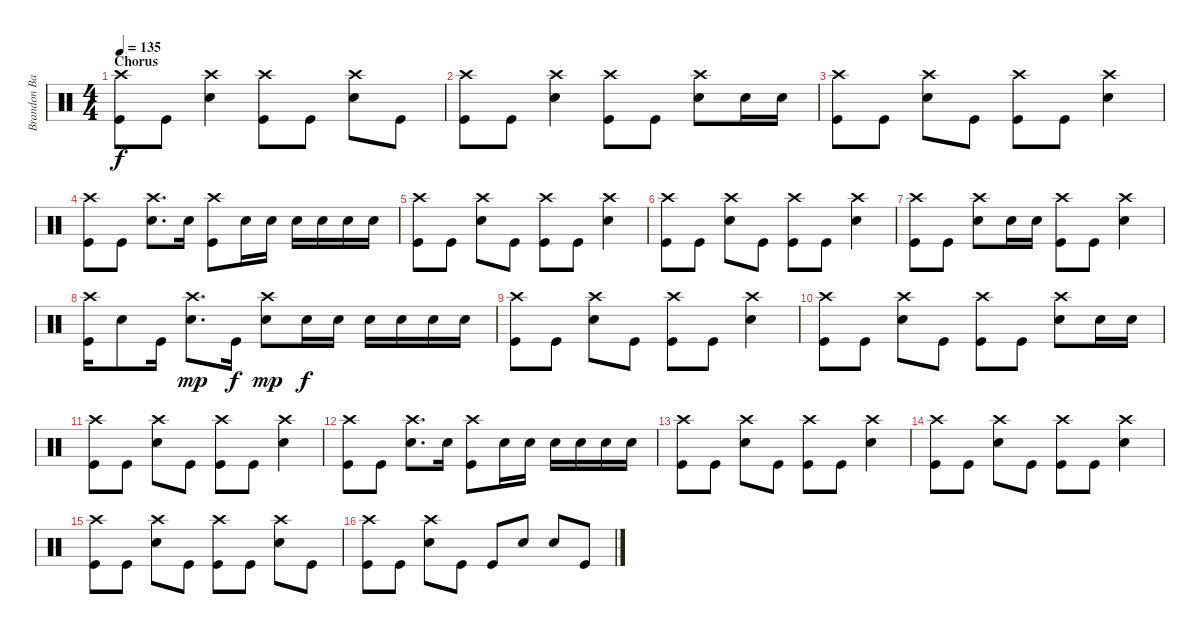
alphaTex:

\track ("Brandon Barnes - Drums" "Brandon Ba") {instrument percussion}
\staff {score}
\articulation defaults
\ts (4 4)
\section ("" "Chorus")
\tempo 135
\clef neutral
\ks c
("Crash high (hit)" "Kick (hit)").8{dy f} "Kick (hit)".8 ("Snare (hit) 2" "Crash high (hit)").4 ("Crash high (hit)" "Kick (hit)").8 "Kick (hit)".8 ("Snare (hit) 2" "Crash high (hit)").8 "Kick (hit)".8 |
("Crash high (hit)" "Kick (hit)").8 "Kick (hit)".8 ("Snare (hit) 2" "Crash high (hit)").4 ("Crash high (hit)" "Kick (hit)").8 "Kick (hit)".8 ("Snare (hit) 2" "Crash high (hit)").8 "Snare (hit) 2".16 "Snare (hit) 2".16 |
("Crash high (hit)" "Kick (hit)").8 "Kick (hit)".8 ("Snare (hit) 2" "Crash high (hit)").8 "Kick (hit)".8 ("Crash high (hit)" "Kick (hit)").8 "Kick (hit)".8 ("Snare (hit) 2" "Crash high (hit)").4 |
("Crash high (hit)" "Kick (hit)").8 "Kick (hit)".8 ("Snare (hit) 2" "Crash high (hit)").8{d} "Snare (hit) 2".16 ("Crash high (hit)" "Kick (hit)").8 "Snare (hit) 2".16 "Snare (hit) 2".16 "Snare (hit) 2".16 "Snare (hit) 2".16 "Snare (hit) 2".16 "Snare (hit) 2".16 |
("Crash high (hit)" "Kick (hit)").8 "Kick (hit)".8 ("Snare (hit) 2" "Crash high (hit)").8 "Kick (hit)".8 ("Crash high (hit)" "Kick (hit)").8 "Kick (hit)".8 ("Snare (hit) 2" "Crash high (hit)").4 |
("Crash high (hit)" "Kick (hit)").8 "Kick (hit)".8 ("Snare (hit) 2" "Crash high (hit)").8 "Kick (hit)".8 ("Crash high (hit)" "Kick (hit)").8 "Kick (hit)".8 ("Snare (hit) 2" "Crash high (hit)").4 |
("Crash high (hit)" "Kick (hit)").8 "Kick (hit)".8 ("Snare (hit) 2" "Crash high (hit)").8 "Snare (hit) 2".16 "Snare (hit) 2".16 ("Crash high (hit)" "Kick (hit)").8 "Kick (hit)".8 ("Snare (hit) 2" "Crash high (hit)").4 |
("Crash high (hit)" "Kick (hit)").16 "Snare (hit) 2".8 "Kick (hit)".16 ("Crash high (hit)" "Snare (hit) 2").8{d dy mp} "Kick (hit)".16{dy f} ("Crash high (hit)" "Snare (hit) 2").8{dy mp} "Snare (hit) 2".16{dy f} "Snare (hit) 2".16 "Snare (hit) 2".16 "Snare (hit) 2".16 "Snare (hit) 2".16 "Snare (hit) 2".16 |
("Crash high (hit)" "Kick (hit)").8 "Kick (hit)".8 ("Snare (hit) 2" "Crash high (hit)").8 "Kick (hit)".8 ("Crash high (hit)" "Kick (hit)").8 "Kick (hit)".8 ("Snare (hit) 2" "Crash high (hit)").4 |
("Crash high (hit)" "Kick (hit)").8 "Kick (hit)".8 ("Snare (hit) 2" "Crash high (hit)").8 "Kick (hit)".8 ("Crash high (hit)" "Kick (hit)").8 "Kick (hit)".8 ("Snare (hit) 2" "Crash high (hit)").8 "Snare (hit) 2".16 "Snare (hit) 2".16 |
("Crash high (hit)" "Kick (hit)").8 "Kick (hit)".8 ("Snare (hit) 2" "Crash high (hit)").8 "Kick (hit)".8 ("Crash high (hit)" "Kick (hit)").8 "Kick (hit)".8 ("Snare (hit) 2" "Crash high (hit)").4 |
("Crash high (hit)" "Kick (hit)").8 "Kick (hit)".8 ("Snare (hit) 2" "Crash high (hit)").8{d} "Snare (hit) 2".16 ("Crash high (hit)" "Kick (hit)").8 "Snare (hit) 2".16 "Snare (hit) 2".16 "Snare (hit) 2".16 "Snare (hit) 2".16 "Snare (hit) 2".16 "Snare (hit) 2".16 |
("Crash high (hit)" "Kick (hit)").8 "Kick (hit)".8 ("Snare (hit) 2" "Crash high (hit)").8 "Kick (hit)".8 ("Crash high (hit)" "Kick (hit)").8 "Kick (hit)".8 ("Snare (hit) 2" "Crash high (hit)").4 |
("Crash high (hit)" "Kick (hit)").8 "Kick (hit)".8 ("Snare (hit) 2" "Crash high (hit)").8 "Kick (hit)".8 ("Crash high (hit)" "Kick (hit)").8 "Kick (hit)".8 ("Snare (hit) 2" "Crash high (hit)").4 |
("Crash high (hit)" "Kick (hit)").8 "Kick (hit)".8 ("Snare (hit) 2" "Crash high (hit)").8 "Kick (hit)".8 ("Crash high (hit)" "Kick (hit)").8 "Kick (hit)".8 ("Snare (hit) 2" "Crash high (hit)").8 "Kick (hit)".8 |
("Crash high (hit)" "Kick (hit)").8 "Kick (hit)".8 ("Snare (hit) 2" "Crash high (hit)").8 "Kick (hit)".8 "Kick (hit)".8 "Snare (hit) 2".8 "Snare (hit) 2".8 "Kick (hit)".8
